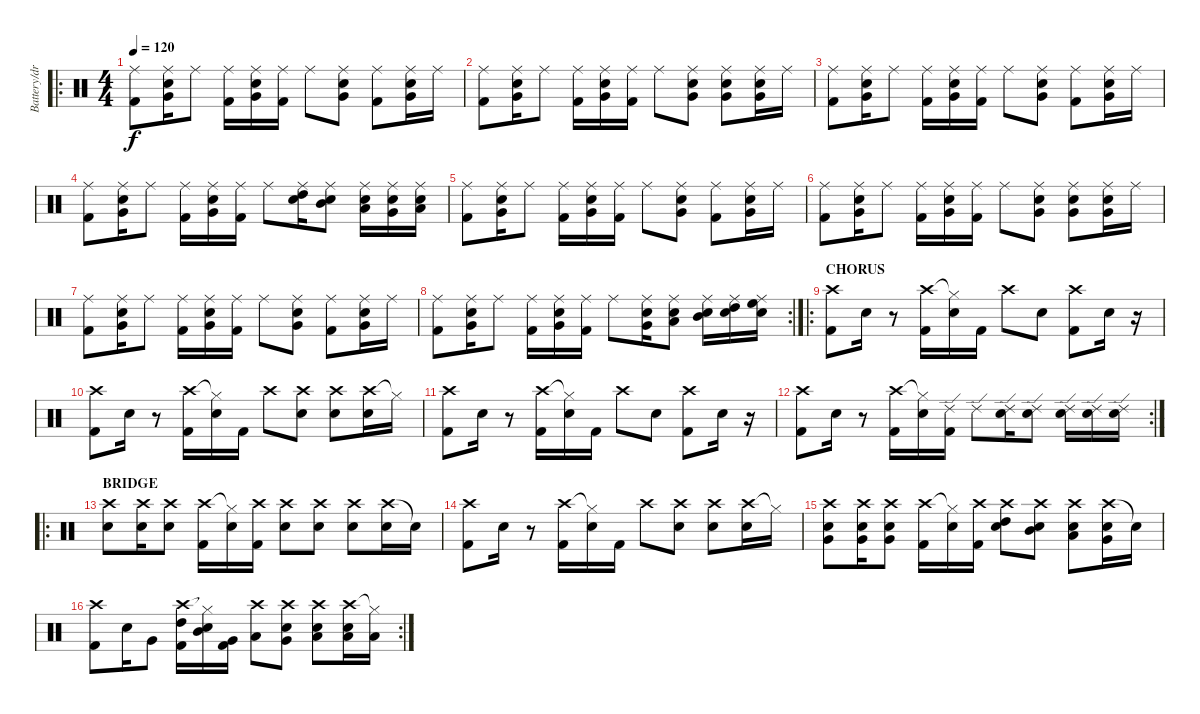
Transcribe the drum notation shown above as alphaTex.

\track ("Battery/drums" "Battery/dr") {instrument percussion}
\staff {score}
\articulation defaults
\ro
\ts (4 4)
\tempo 120
\clef neutral
\ks c
("Ride (middle)" "Kick (hit) 2").8{dy f} ("Ride (middle)" "Very Low Tom (hit)" "Electric Snare (hit)").16 "Ride (middle)".8 ("Ride (middle)" "Kick (hit) 2").16 ("Ride (middle)" "Very Low Tom (hit)" "Electric Snare (hit)").16 ("Ride (middle)" "Kick (hit) 2").16 "Ride (middle)".8 ("Ride (middle)" "Very Low Tom (hit)" "Electric Snare (hit)").8 ("Ride (middle)" "Kick (hit) 2").8 ("Ride (middle)" "Very Low Tom (hit)" "Electric Snare (hit)").16 "Ride (middle)".16 |
("Ride (middle)" "Kick (hit) 2").8 ("Ride (middle)" "Very Low Tom (hit)" "Electric Snare (hit)").16 "Ride (middle)".8 ("Ride (middle)" "Kick (hit) 2").16 ("Ride (middle)" "Very Low Tom (hit)" "Electric Snare (hit)").16 ("Ride (middle)" "Kick (hit) 2").16 "Ride (middle)".8 ("Ride (middle)" "Very Low Tom (hit)" "Electric Snare (hit)").8 ("Ride (middle)" "Very Low Tom (hit)" "Electric Snare (hit)").8 ("Ride (middle)" "Very Low Tom (hit)" "Electric Snare (hit)").16 "Ride (middle)".16 |
("Ride (middle)" "Kick (hit) 2").8 ("Ride (middle)" "Very Low Tom (hit)" "Electric Snare (hit)").16 "Ride (middle)".8 ("Ride (middle)" "Kick (hit) 2").16 ("Ride (middle)" "Very Low Tom (hit)" "Electric Snare (hit)").16 ("Ride (middle)" "Kick (hit) 2").16 "Ride (middle)".8 ("Ride (middle)" "Very Low Tom (hit)" "Electric Snare (hit)").8 ("Ride (middle)" "Kick (hit) 2").8 ("Ride (middle)" "Very Low Tom (hit)" "Electric Snare (hit)").16 "Ride (middle)".16 |
("Ride (middle)" "Kick (hit) 2").8 ("Ride (middle)" "Very Low Tom (hit)" "Electric Snare (hit)").16 "Ride (middle)".8 ("Ride (middle)" "Kick (hit) 2").16 ("Ride (middle)" "Very Low Tom (hit)" "Electric Snare (hit)").16 ("Ride (middle)" "Kick (hit) 2").16 "Ride (middle)".8 ("Ride (middle)" "High Tom (hit)" "Electric Snare (hit)").16 ("Ride (middle)" "Mid Tom (hit)" "Electric Snare (hit)").8 ("Ride (middle)" "Low Tom (hit)" "Electric Snare (hit)").16 ("Ride (middle)" "Very Low Tom (hit)" "Electric Snare (hit)").16 ("Ride (middle)" "Low Floor Tom (hit)" "Electric Snare (hit)").16 |
("Ride (middle)" "Kick (hit) 2").8 ("Ride (middle)" "Very Low Tom (hit)" "Electric Snare (hit)").16 "Ride (middle)".8 ("Ride (middle)" "Kick (hit) 2").16 ("Ride (middle)" "Very Low Tom (hit)" "Electric Snare (hit)").16 ("Ride (middle)" "Kick (hit) 2").16 "Ride (middle)".8 ("Ride (middle)" "Very Low Tom (hit)" "Electric Snare (hit)").8 ("Ride (middle)" "Kick (hit) 2").8 ("Ride (middle)" "Very Low Tom (hit)" "Electric Snare (hit)").16 "Ride (middle)".16 |
("Ride (middle)" "Kick (hit) 2").8 ("Ride (middle)" "Very Low Tom (hit)" "Electric Snare (hit)").16 "Ride (middle)".8 ("Ride (middle)" "Kick (hit) 2").16 ("Ride (middle)" "Very Low Tom (hit)" "Electric Snare (hit)").16 ("Ride (middle)" "Kick (hit) 2").16 "Ride (middle)".8 ("Ride (middle)" "Very Low Tom (hit)" "Electric Snare (hit)").8 ("Ride (middle)" "Very Low Tom (hit)" "Electric Snare (hit)").8 ("Ride (middle)" "Very Low Tom (hit)" "Electric Snare (hit)").16 "Ride (middle)".16 |
("Ride (middle)" "Kick (hit) 2").8 ("Ride (middle)" "Very Low Tom (hit)" "Electric Snare (hit)").16 "Ride (middle)".8 ("Ride (middle)" "Kick (hit) 2").16 ("Ride (middle)" "Very Low Tom (hit)" "Electric Snare (hit)").16 ("Ride (middle)" "Kick (hit) 2").16 "Ride (middle)".8 ("Ride (middle)" "Very Low Tom (hit)" "Electric Snare (hit)").8 ("Ride (middle)" "Kick (hit) 2").8 ("Ride (middle)" "Very Low Tom (hit)" "Electric Snare (hit)").16 "Ride (middle)".16 |
\rc 2
("Ride (middle)" "Kick (hit) 2").8 ("Ride (middle)" "Very Low Tom (hit)" "Electric Snare (hit)").16 "Ride (middle)".8 ("Ride (middle)" "Kick (hit) 2").16 ("Ride (middle)" "Very Low Tom (hit)" "Electric Snare (hit)").16 ("Ride (middle)" "Kick (hit) 2").16 "Ride (middle)".8 ("Ride (middle)" "Very Low Tom (hit)" "Electric Snare (hit)").16 ("Ride (middle)" "Low Tom (hit)" "Electric Snare (hit)").8 ("Ride (middle)" "Mid Tom (hit)" "Electric Snare (hit)").16 ("Ride (middle)" "High Tom (hit)" "Electric Snare (hit)").16 ("Ride (middle)" "High Floor Tom (hit)" "Electric Snare (hit)").16 |
\ro
\section ("" "CHORUS")
("Crash high (hit)" "Kick (hit) 2").8 "Electric Snare (hit)".16 r.8 ("Crash high (hit)" "Kick (hit) 2").16 ("Hi-Hat (closed)"{t} "Electric Snare (hit)").16 "Kick (hit) 2".16 "Crash high (hit)".8 "Electric Snare (hit)".8 ("Crash high (hit)" "Kick (hit) 2").8 "Electric Snare (hit)".16 r.16 |
("Crash high (hit)" "Kick (hit) 2").8 "Electric Snare (hit)".16 r.8 ("Crash high (hit)" "Kick (hit) 2").16 ("Hi-Hat (closed)"{t} "Electric Snare (hit)").16 "Kick (hit) 2".16 "Crash high (hit)".8 ("Crash high (hit)" "Electric Snare (hit)").8 ("Crash high (hit)" "Electric Snare (hit)").8 ("Crash high (hit)" "Electric Snare (hit)").16 "Hi-Hat (closed)"{t}.16 |
("Crash high (hit)" "Kick (hit) 2").8 "Electric Snare (hit)".16 r.8 ("Crash high (hit)" "Kick (hit) 2").16 ("Hi-Hat (closed)"{t} "Electric Snare (hit)").16 "Kick (hit) 2".16 "Crash high (hit)".8 "Electric Snare (hit)".8 ("Crash high (hit)" "Kick (hit) 2").8 "Electric Snare (hit)".16 r.16 |
\rc 2
("Crash high (hit)" "Kick (hit) 2").8 "Electric Snare (hit)".16 r.8 ("Crash high (hit)" "Kick (hit) 2").16 ("Hi-Hat (closed)"{t} "Electric Snare (hit)").16 ("Ride (edge) 2" "Kick (hit) 2").16 "Ride (edge) 2".8 ("Ride (edge) 2" "Electric Snare (hit)").16 ("Ride (edge) 2" "Electric Snare (hit)").8 ("Ride (edge) 2" "Electric Snare (hit)").16 ("Ride (edge) 2" "Electric Snare (hit)").16 ("Ride (edge) 2" "Electric Snare (hit)").16 |
\ro
\section ("" "BRIDGE")
("Crash high (hit)" "Electric Snare (hit)").8 ("Crash high (hit)" "Electric Snare (hit)").16 ("Crash high (hit)" "Electric Snare (hit)").8 ("Crash high (hit)" "Kick (hit) 2").16 ("Hi-Hat (closed)"{t} "Electric Snare (hit)").16 ("Crash high (hit)" "Kick (hit) 2").16 ("Crash high (hit)" "Electric Snare (hit)").8 ("Crash high (hit)" "Electric Snare (hit)").8 ("Crash high (hit)" "Electric Snare (hit)").8 ("Crash high (hit)" "Electric Snare (hit)").16 "Snare (hit)"{t}.16 |
("Crash high (hit)" "Kick (hit) 2").8 "Electric Snare (hit)".16 r.8 ("Crash high (hit)" "Kick (hit) 2").16 ("Hi-Hat (closed)"{t} "Electric Snare (hit)").16 "Kick (hit) 2".16 "Crash high (hit)".8 ("Crash high (hit)" "Electric Snare (hit)").8 ("Crash high (hit)" "Electric Snare (hit)").8 ("Crash high (hit)" "Electric Snare (hit)").16 "Hi-Hat (closed)"{t}.16 |
("Crash high (hit)" "Very Low Tom (hit)" "Electric Snare (hit)").8 ("Crash high (hit)" "Very Low Tom (hit)" "Electric Snare (hit)").16 ("Crash high (hit)" "Very Low Tom (hit)" "Electric Snare (hit)").8 ("Crash high (hit)" "Kick (hit) 2").16 ("Hi-Hat (closed)"{t} "Electric Snare (hit)").16 ("Crash high (hit)" "Kick (hit) 2").16 ("Crash high (hit)" "High Tom (hit)" "Electric Snare (hit)").8 ("Crash high (hit)" "Mid Tom (hit)" "Electric Snare (hit)").8 ("Crash high (hit)" "Low Tom (hit)" "Electric Snare (hit)").8 ("Crash high (hit)" "Very Low Tom (hit)" "Electric Snare (hit)").16 "Snare (hit)"{t}.16 |
\rc 2
("Crash high (hit)" "Kick (hit) 2").8 "Electric Snare (hit)".16 "Very Low Tom (hit)".8 ("Crash high (hit)" "High Tom (hit)" "Kick (hit) 2").16 ("Hi-Hat (closed)"{t} "Mid Tom (hit)" "Electric Snare (hit)").16 ("Very Low Tom (hit)" "Kick (hit) 2").16 ("Crash high (hit)" "Low Tom (hit)").8 ("Crash high (hit)" "Very Low Tom (hit)" "Electric Snare (hit)").8 ("Crash high (hit)" "Low Floor Tom (hit)" "Electric Snare (hit)").8 ("Crash high (hit)" "Low Floor Tom (hit)" "Electric Snare (hit)").16 ("Hi-Hat (closed)"{t} "Low Floor Tom (hit)").16
